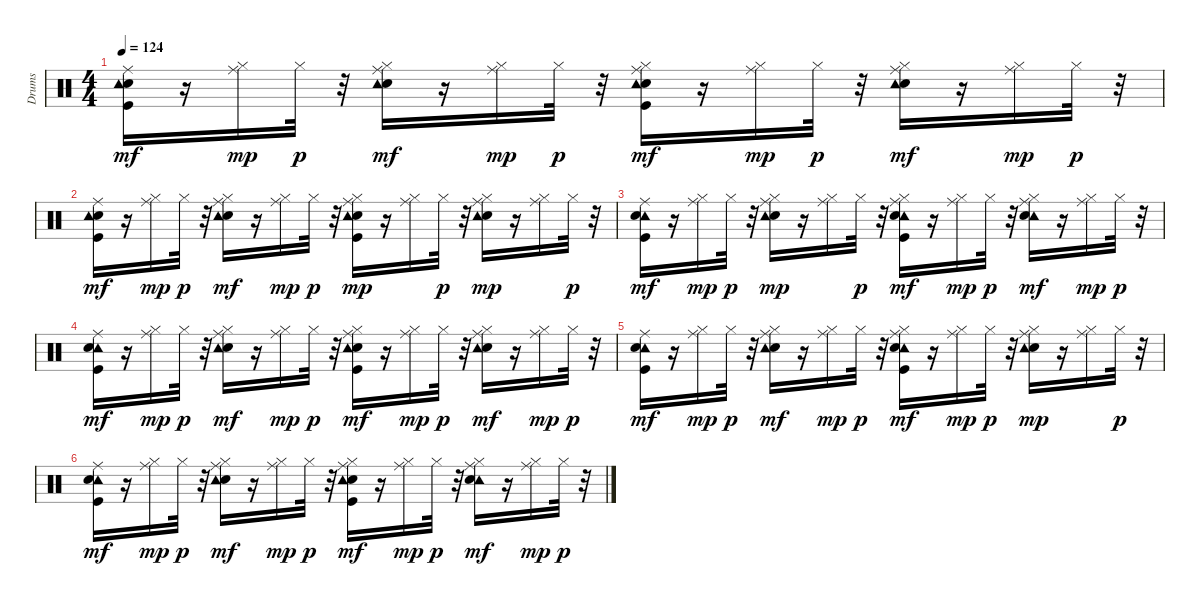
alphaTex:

\track ("Drums" "Drums") {instrument percussion}
\staff {score}
\articulation defaults
\ts (4 4)
\tempo 124
\clef neutral
\ks c
("Snare (hit) 2" "Ride (middle)" "Tambourine (hit)" "Kick (hit)").16{dy mf volume 5} r.16 ("Ride (middle)" "Hi-Hat (closed)").16{dy mp} "Hi-Hat (closed)".32{dy p} r.32 ("Ride (middle)" "Snare (hit) 2" "Tambourine (hit)" "Hi-Hat (closed)").16{dy mf} r.16 ("Ride (middle)" "Hi-Hat (closed)").16{dy mp} "Hi-Hat (closed)".32{dy p} r.32 ("Snare (hit) 2" "Ride (middle)" "Kick (hit)" "Tambourine (hit)" "Hi-Hat (closed)").16{dy mf} r.16 ("Ride (middle)" "Hi-Hat (closed)").16{dy mp} "Hi-Hat (closed)".32{dy p} r.32 ("Ride (middle)" "Snare (hit) 2" "Tambourine (hit)" "Hi-Hat (closed)").16{dy mf} r.16 ("Ride (middle)" "Hi-Hat (closed)").16{dy mp} "Hi-Hat (closed)".32{dy p} r.32 |
("Snare (hit) 2" "Ride (middle)" "Tambourine (hit)" "Kick (hit)").16{dy mf volume 4} r.16 ("Ride (middle)" "Hi-Hat (closed)").16{dy mp} "Hi-Hat (closed)".32{dy p} r.32 ("Ride (middle)" "Snare (hit) 2" "Hi-Hat (closed)" "Tambourine (hit)").16{dy mf} r.16 ("Ride (middle)" "Hi-Hat (closed)").16{dy mp} "Hi-Hat (closed)".32{dy p} r.32 ("Snare (hit) 2" "Kick (hit)" "Tambourine (hit)" "Hi-Hat (closed)" "Ride (middle)").16{dy mp} r.16 ("Hi-Hat (closed)" "Ride (middle)").16 "Hi-Hat (closed)".32{dy p} r.32 ("Snare (hit) 2" "Tambourine (hit)" "Hi-Hat (closed)" "Ride (middle)").16{dy mp} r.16 ("Ride (middle)" "Hi-Hat (closed)").16 "Hi-Hat (closed)".32{dy p} r.32 |
("Ride (middle)" "Tambourine (hit)" "Kick (hit)" "Snare (hit) 2").16{dy mf volume 3} r.16 ("Hi-Hat (closed)" "Ride (middle)").16{dy mp} "Hi-Hat (closed)".32{dy p} r.32 ("Snare (hit) 2" "Hi-Hat (closed)" "Tambourine (hit)" "Ride (middle)").16{dy mp} r.16 ("Ride (middle)" "Hi-Hat (closed)").16 "Hi-Hat (closed)".32{dy p} r.32 ("Ride (middle)" "Tambourine (hit)" "Hi-Hat (closed)" "Kick (hit)" "Snare (hit) 2").16{dy mf} r.16 ("Ride (middle)" "Hi-Hat (closed)").16{dy mp} "Hi-Hat (closed)".32{dy p} r.32 ("Tambourine (hit)" "Ride (middle)" "Snare (hit) 2" "Hi-Hat (closed)").16{dy mf} r.16 ("Hi-Hat (closed)" "Ride (middle)").16{dy mp} "Hi-Hat (closed)".32{dy p} r.32 |
("Tambourine (hit)" "Snare (hit) 2" "Ride (middle)" "Kick (hit)").16{dy mf volume 1} r.16 ("Ride (middle)" "Hi-Hat (closed)").16{dy mp} "Hi-Hat (closed)".32{dy p} r.32 ("Ride (middle)" "Snare (hit) 2" "Tambourine (hit)" "Hi-Hat (closed)").16{dy mf} r.16 ("Hi-Hat (closed)" "Ride (middle)").16{dy mp} "Hi-Hat (closed)".32{dy p} r.32 ("Snare (hit) 2" "Ride (middle)" "Kick (hit)" "Tambourine (hit)" "Hi-Hat (closed)").16{dy mf} r.16 ("Ride (middle)" "Hi-Hat (closed)").16{dy mp} "Hi-Hat (closed)".32{dy p} r.32 ("Hi-Hat (closed)" "Ride (middle)" "Snare (hit) 2" "Tambourine (hit)").16{dy mf} r.16 ("Ride (middle)" "Hi-Hat (closed)").16{dy mp} "Hi-Hat (closed)".32{dy p} r.32 |
("Kick (hit)" "Ride (middle)" "Tambourine (hit)" "Snare (hit) 2").16{dy mf volume 0} r.16 ("Ride (middle)" "Hi-Hat (closed)").16{dy mp} "Hi-Hat (closed)".32{dy p} r.32 ("Ride (middle)" "Snare (hit) 2" "Hi-Hat (closed)" "Tambourine (hit)").16{dy mf} r.16 ("Ride (middle)" "Hi-Hat (closed)").16{dy mp} "Hi-Hat (closed)".32{dy p} r.32 ("Tambourine (hit)" "Hi-Hat (closed)" "Snare (hit) 2" "Ride (middle)" "Kick (hit)").16{dy mf} r.16 ("Ride (middle)" "Hi-Hat (closed)").16{dy mp} "Hi-Hat (closed)".32{dy p} r.32 ("Snare (hit) 2" "Tambourine (hit)" "Hi-Hat (closed)" "Ride (middle)").16{dy mp} r.16 ("Hi-Hat (closed)" "Ride (middle)").16 "Hi-Hat (closed)".32{dy p} r.32 |
("Ride (middle)" "Tambourine (hit)" "Snare (hit) 2" "Kick (hit)").16{dy mf} r.16 ("Ride (middle)" "Hi-Hat (closed)").16{dy mp} "Hi-Hat (closed)".32{dy p} r.32 ("Snare (hit) 2" "Tambourine (hit)" "Ride (middle)" "Hi-Hat (closed)").16{dy mf} r.16 ("Ride (middle)" "Hi-Hat (closed)").16{dy mp} "Hi-Hat (closed)".32{dy p} r.32 ("Snare (hit) 2" "Ride (middle)" "Kick (hit)" "Tambourine (hit)" "Hi-Hat (closed)").16{dy mf} r.16 ("Hi-Hat (closed)" "Ride (middle)").16{dy mp} "Hi-Hat (closed)".32{dy p} r.32 ("Ride (middle)" "Tambourine (hit)" "Hi-Hat (closed)" "Snare (hit) 2").16{dy mf} r.16 ("Hi-Hat (closed)" "Ride (middle)").16{dy mp} "Hi-Hat (closed)".32{dy p} r.32
